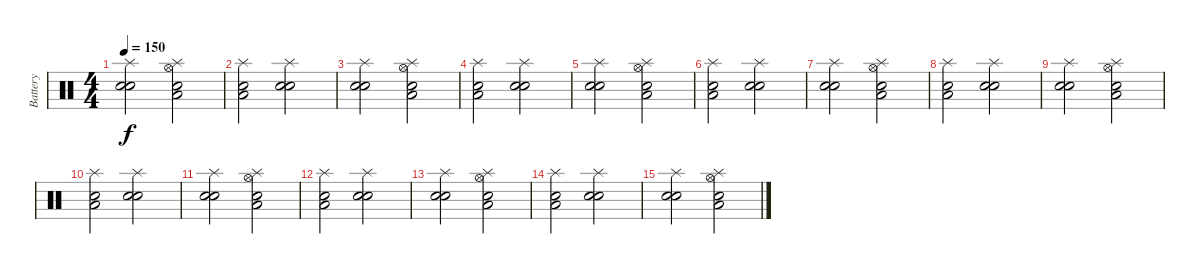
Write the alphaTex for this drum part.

\track ("Battery" "Battery") {instrument percussion}
\staff {score}
\articulation defaults
\ts (4 4)
\tempo 150
\clef neutral
\ks c
("Snare (hit) 2" "Electric Snare (hit)" "Splash (hit)").2{dy f} ("Snare (hit) 2" "Low Floor Tom (hit)" "Splash (hit)" "Hi-Hat (open)").2 |
("Snare (hit) 2" "Low Floor Tom (hit)" "Splash (hit)").2 ("Snare (hit) 2" "Electric Snare (hit)" "Splash (hit)").2 |
("Snare (hit) 2" "Electric Snare (hit)" "Splash (hit)").2 ("Snare (hit) 2" "Low Floor Tom (hit)" "Splash (hit)" "Hi-Hat (open)").2 |
("Snare (hit) 2" "Low Floor Tom (hit)" "Splash (hit)").2 ("Snare (hit) 2" "Electric Snare (hit)" "Splash (hit)").2 |
("Snare (hit) 2" "Electric Snare (hit)" "Splash (hit)").2 ("Snare (hit) 2" "Low Floor Tom (hit)" "Splash (hit)" "Hi-Hat (open)").2 |
("Snare (hit) 2" "Low Floor Tom (hit)" "Splash (hit)").2 ("Snare (hit) 2" "Electric Snare (hit)" "Splash (hit)").2 |
("Snare (hit) 2" "Electric Snare (hit)" "Splash (hit)").2 ("Snare (hit) 2" "Low Floor Tom (hit)" "Splash (hit)" "Hi-Hat (open)").2 |
("Snare (hit) 2" "Low Floor Tom (hit)" "Splash (hit)").2 ("Snare (hit) 2" "Electric Snare (hit)" "Splash (hit)").2 |
("Snare (hit) 2" "Electric Snare (hit)" "Splash (hit)").2 ("Snare (hit) 2" "Low Floor Tom (hit)" "Splash (hit)" "Hi-Hat (open)").2 |
("Snare (hit) 2" "Low Floor Tom (hit)" "Splash (hit)").2 ("Snare (hit) 2" "Electric Snare (hit)" "Splash (hit)").2 |
("Snare (hit) 2" "Electric Snare (hit)" "Splash (hit)").2 ("Snare (hit) 2" "Low Floor Tom (hit)" "Splash (hit)" "Hi-Hat (open)").2 |
("Snare (hit) 2" "Low Floor Tom (hit)" "Splash (hit)").2 ("Snare (hit) 2" "Electric Snare (hit)" "Splash (hit)").2 |
("Snare (hit) 2" "Electric Snare (hit)" "Splash (hit)").2 ("Snare (hit) 2" "Low Floor Tom (hit)" "Splash (hit)" "Hi-Hat (open)").2 |
("Snare (hit) 2" "Low Floor Tom (hit)" "Splash (hit)").2 ("Snare (hit) 2" "Electric Snare (hit)" "Splash (hit)").2 |
("Snare (hit) 2" "Electric Snare (hit)" "Splash (hit)").2 ("Snare (hit) 2" "Low Floor Tom (hit)" "Splash (hit)" "Hi-Hat (open)").2
